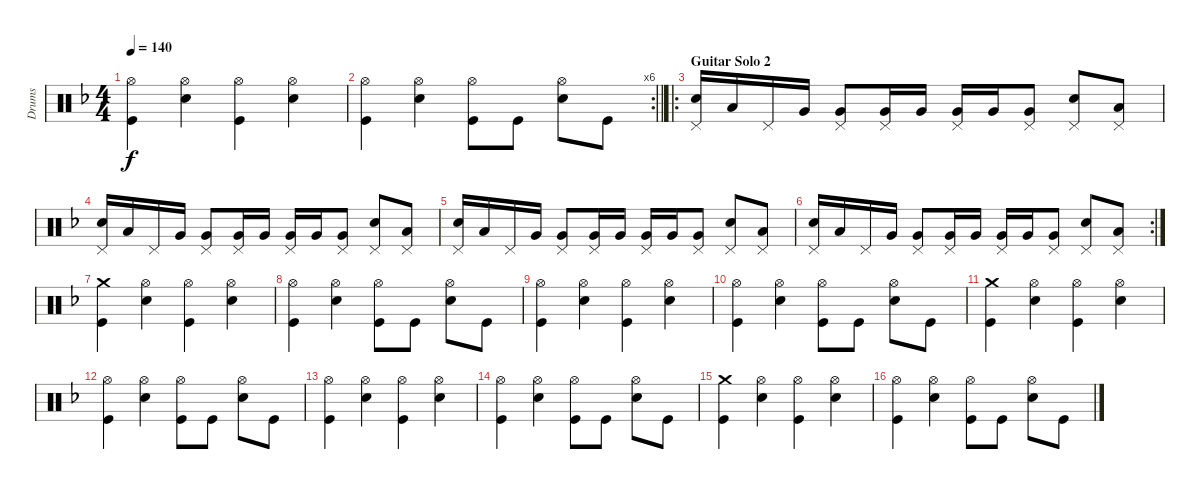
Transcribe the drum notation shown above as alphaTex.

\track ("Drums" "Drums") {instrument percussion}
\staff {score}
\articulation defaults
\ts (4 4)
\tempo 140
\clef neutral
\ks f
("Hi-Hat (open)" "Kick (hit)").4{dy f} ("Hi-Hat (open)" "Snare (hit) 2").4 ("Hi-Hat (open)" "Kick (hit)").4 ("Hi-Hat (open)" "Snare (hit) 2").4 |
\rc 6
\barLineRight lightlight
("Hi-Hat (open)" "Kick (hit)").4 ("Hi-Hat (open)" "Snare (hit) 2").4 ("Hi-Hat (open)" "Kick (hit)").8 "Kick (hit)".8 ("Hi-Hat (open)" "Snare (hit) 2").8 "Kick (hit)".8 |
\ro
\section ("" "Guitar Solo 2")
("Pedal Hi-Hat (hit)" "Snare (hit) 2").16 "Low Tom (hit)".16 "Pedal Hi-Hat (hit)".16 "Very Low Tom (hit)".16 ("Pedal Hi-Hat (hit)" "Very Low Tom (hit)").8 ("Pedal Hi-Hat (hit)" "Very Low Tom (hit)").16 "Very Low Tom (hit)".16 ("Pedal Hi-Hat (hit)" "Very Low Tom (hit)").16 "Very Low Tom (hit)".16 ("Pedal Hi-Hat (hit)" "Very Low Tom (hit)").8 ("Pedal Hi-Hat (hit)" "Snare (hit) 2").8 ("Pedal Hi-Hat (hit)" "Low Floor Tom (hit)").8 |
("Pedal Hi-Hat (hit)" "Snare (hit) 2").16 "Low Tom (hit)".16 "Pedal Hi-Hat (hit)".16 "Very Low Tom (hit)".16 ("Pedal Hi-Hat (hit)" "Very Low Tom (hit)").8 ("Pedal Hi-Hat (hit)" "Very Low Tom (hit)").16 "Very Low Tom (hit)".16 ("Pedal Hi-Hat (hit)" "Very Low Tom (hit)").16 "Very Low Tom (hit)".16 ("Pedal Hi-Hat (hit)" "Very Low Tom (hit)").8 ("Pedal Hi-Hat (hit)" "Snare (hit) 2").8 ("Pedal Hi-Hat (hit)" "Low Floor Tom (hit)").8 |
("Pedal Hi-Hat (hit)" "Snare (hit) 2").16 "Low Tom (hit)".16 "Pedal Hi-Hat (hit)".16 "Very Low Tom (hit)".16 ("Pedal Hi-Hat (hit)" "Very Low Tom (hit)").8 ("Pedal Hi-Hat (hit)" "Very Low Tom (hit)").16 "Very Low Tom (hit)".16 ("Pedal Hi-Hat (hit)" "Very Low Tom (hit)").16 "Very Low Tom (hit)".16 ("Pedal Hi-Hat (hit)" "Very Low Tom (hit)").8 ("Pedal Hi-Hat (hit)" "Snare (hit) 2").8 ("Pedal Hi-Hat (hit)" "Low Floor Tom (hit)").8 |
\rc 2
("Pedal Hi-Hat (hit)" "Snare (hit) 2").16 "Low Tom (hit)".16 "Pedal Hi-Hat (hit)".16 "Very Low Tom (hit)".16 ("Pedal Hi-Hat (hit)" "Very Low Tom (hit)").8 ("Pedal Hi-Hat (hit)" "Very Low Tom (hit)").16 "Very Low Tom (hit)".16 ("Pedal Hi-Hat (hit)" "Very Low Tom (hit)").16 "Very Low Tom (hit)".16 ("Pedal Hi-Hat (hit)" "Very Low Tom (hit)").8 ("Pedal Hi-Hat (hit)" "Snare (hit) 2").8 ("Pedal Hi-Hat (hit)" "Low Floor Tom (hit)").8 |
("Crash medium (hit)" "Kick (hit)").4 ("Hi-Hat (open)" "Snare (hit) 2").4 ("Hi-Hat (open)" "Kick (hit)").4 ("Hi-Hat (open)" "Snare (hit) 2").4 |
("Hi-Hat (open)" "Kick (hit)").4 ("Hi-Hat (open)" "Snare (hit) 2").4 ("Hi-Hat (open)" "Kick (hit)").8 "Kick (hit)".8 ("Hi-Hat (open)" "Snare (hit) 2").8 "Kick (hit)".8 |
("Hi-Hat (open)" "Kick (hit)").4 ("Hi-Hat (open)" "Snare (hit) 2").4 ("Hi-Hat (open)" "Kick (hit)").4 ("Hi-Hat (open)" "Snare (hit) 2").4 |
("Hi-Hat (open)" "Kick (hit)").4 ("Hi-Hat (open)" "Snare (hit) 2").4 ("Hi-Hat (open)" "Kick (hit)").8 "Kick (hit)".8 ("Hi-Hat (open)" "Snare (hit) 2").8 "Kick (hit)".8 |
("Crash medium (hit)" "Kick (hit)").4 ("Hi-Hat (open)" "Snare (hit) 2").4 ("Hi-Hat (open)" "Kick (hit)").4 ("Hi-Hat (open)" "Snare (hit) 2").4 |
("Hi-Hat (open)" "Kick (hit)").4 ("Hi-Hat (open)" "Snare (hit) 2").4 ("Hi-Hat (open)" "Kick (hit)").8 "Kick (hit)".8 ("Hi-Hat (open)" "Snare (hit) 2").8 "Kick (hit)".8 |
("Hi-Hat (open)" "Kick (hit)").4 ("Hi-Hat (open)" "Snare (hit) 2").4 ("Hi-Hat (open)" "Kick (hit)").4 ("Hi-Hat (open)" "Snare (hit) 2").4 |
("Hi-Hat (open)" "Kick (hit)").4 ("Hi-Hat (open)" "Snare (hit) 2").4 ("Hi-Hat (open)" "Kick (hit)").8 "Kick (hit)".8 ("Hi-Hat (open)" "Snare (hit) 2").8 "Kick (hit)".8 |
("Crash medium (hit)" "Kick (hit)").4 ("Hi-Hat (open)" "Snare (hit) 2").4 ("Hi-Hat (open)" "Kick (hit)").4 ("Hi-Hat (open)" "Snare (hit) 2").4 |
("Hi-Hat (open)" "Kick (hit)").4 ("Hi-Hat (open)" "Snare (hit) 2").4 ("Hi-Hat (open)" "Kick (hit)").8 "Kick (hit)".8 ("Hi-Hat (open)" "Snare (hit) 2").8 "Kick (hit)".8
